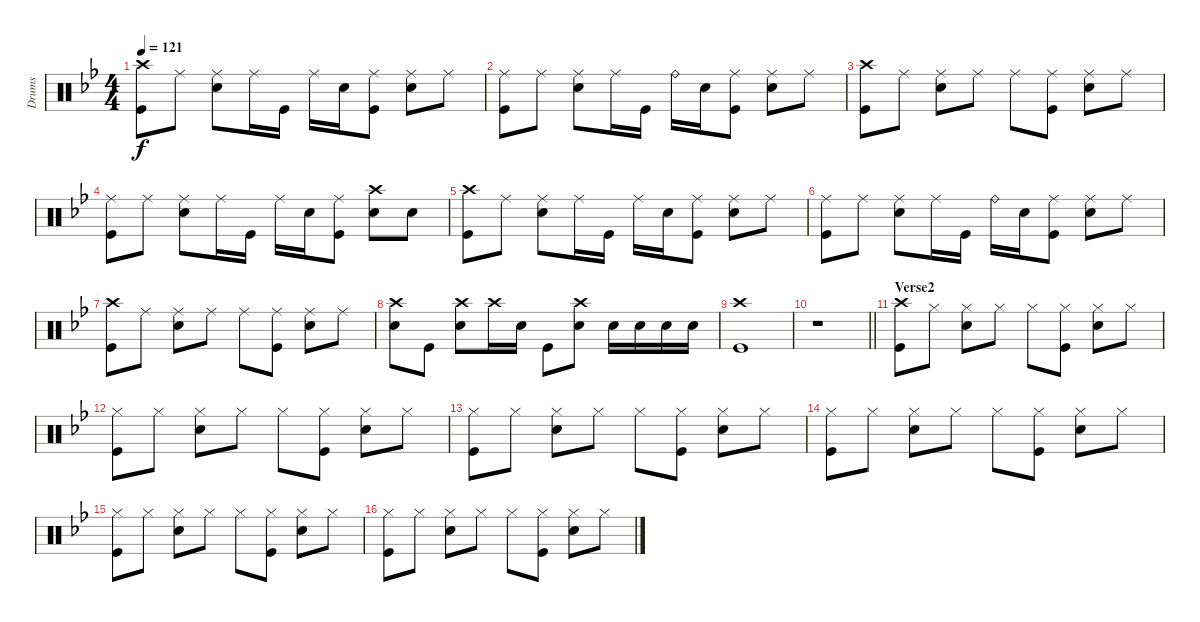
\track ("Drums" "Drums") {instrument percussion}
\staff {score}
\articulation defaults
\ts (4 4)
\tempo 121
\clef neutral
\ks bb
("Crash high (hit)" "Kick (hit)").8{dy f} "Ride (middle)".8 ("Ride (middle)" "Snare (hit) 2").8 "Ride (middle)".16 "Kick (hit)".16 "Ride (middle)".16 "Snare (hit) 2".16 ("Ride (middle)" "Kick (hit)").8 ("Ride (middle)" "Snare (hit) 2").8 "Ride (middle)".8 |
("Ride (middle)" "Kick (hit)").8 "Ride (middle)".8 ("Ride (middle)" "Snare (hit) 2").8 "Ride (middle)".16 "Kick (hit)".16 "Ride (bell)".16 "Snare (hit) 2".16 ("Ride (middle)" "Kick (hit)").8 ("Ride (middle)" "Snare (hit) 2").8 "Ride (middle)".8 |
("Crash high (hit)" "Kick (hit)").8 "Ride (middle)".8 ("Ride (middle)" "Snare (hit) 2").8 "Ride (middle)".8 "Ride (middle)".8 ("Kick (hit)" "Ride (middle)").8 ("Snare (hit) 2" "Ride (middle)").8 "Ride (middle)".8 |
("Ride (middle)" "Kick (hit)").8 "Ride (middle)".8 ("Ride (middle)" "Snare (hit) 2").8 "Ride (middle)".16 "Kick (hit)".16 "Ride (middle)".16 "Snare (hit) 2".16 ("Ride (middle)" "Kick (hit)").8 ("Crash high (hit)" "Snare (hit) 2").8 "Snare (hit) 2".8 |
("Crash high (hit)" "Kick (hit)").8 "Ride (middle)".8 ("Ride (middle)" "Snare (hit) 2").8 "Ride (middle)".16 "Kick (hit)".16 "Ride (middle)".16 "Snare (hit) 2".16 ("Ride (middle)" "Kick (hit)").8 ("Ride (middle)" "Snare (hit) 2").8 "Ride (middle)".8 |
("Ride (middle)" "Kick (hit)").8 "Ride (middle)".8 ("Ride (middle)" "Snare (hit) 2").8 "Ride (middle)".16 "Kick (hit)".16 "Ride (bell)".16 "Snare (hit) 2".16 ("Ride (middle)" "Kick (hit)").8 ("Ride (middle)" "Snare (hit) 2").8 "Ride (middle)".8 |
("Crash high (hit)" "Kick (hit)").8 "Ride (middle)".8 ("Ride (middle)" "Snare (hit) 2").8 "Ride (middle)".8 "Ride (middle)".8 ("Kick (hit)" "Ride (middle)").8 ("Snare (hit) 2" "Ride (middle)").8 "Ride (middle)".8 |
("Crash high (hit)" "Snare (hit) 2").8 "Kick (hit)".8 ("Crash high (hit)" "Snare (hit) 2").8 "Crash high (hit)".16 "Snare (hit) 2".16 "Kick (hit)".8 ("Snare (hit) 2" "Crash high (hit)").8 "Snare (hit) 2".16 "Snare (hit) 2".16 "Snare (hit) 2".16 "Snare (hit) 2".16 |
("Kick (hit)" "Crash high (hit)").1 |
\barLineRight lightlight
r.1 |
\section ("" "Verse2")
("Crash high (hit)" "Kick (hit)").8 "Hi-Hat (closed)".8 ("Hi-Hat (closed)" "Snare (hit) 2").8 "Hi-Hat (closed)".8 "Hi-Hat (closed)".8 ("Hi-Hat (closed)" "Kick (hit)").8 ("Hi-Hat (closed)" "Snare (hit) 2").8 "Hi-Hat (closed)".8 |
("Hi-Hat (closed)" "Kick (hit)").8 "Hi-Hat (closed)".8 ("Hi-Hat (closed)" "Snare (hit) 2").8 "Hi-Hat (closed)".8 "Hi-Hat (closed)".8 ("Hi-Hat (closed)" "Kick (hit)").8 ("Hi-Hat (closed)" "Snare (hit) 2").8 "Hi-Hat (closed)".8 |
("Hi-Hat (closed)" "Kick (hit)").8 "Hi-Hat (closed)".8 ("Hi-Hat (closed)" "Snare (hit) 2").8 "Hi-Hat (closed)".8 "Hi-Hat (closed)".8 ("Hi-Hat (closed)" "Kick (hit)").8 ("Hi-Hat (closed)" "Snare (hit) 2").8 "Hi-Hat (closed)".8 |
("Hi-Hat (closed)" "Kick (hit)").8 "Hi-Hat (closed)".8 ("Hi-Hat (closed)" "Snare (hit) 2").8 "Hi-Hat (closed)".8 "Hi-Hat (closed)".8 ("Hi-Hat (closed)" "Kick (hit)").8 ("Hi-Hat (closed)" "Snare (hit) 2").8 "Hi-Hat (closed)".8 |
("Hi-Hat (closed)" "Kick (hit)").8 "Hi-Hat (closed)".8 ("Hi-Hat (closed)" "Snare (hit) 2").8 "Hi-Hat (closed)".8 "Hi-Hat (closed)".8 ("Hi-Hat (closed)" "Kick (hit)").8 ("Hi-Hat (closed)" "Snare (hit) 2").8 "Hi-Hat (closed)".8 |
("Hi-Hat (closed)" "Kick (hit)").8 "Hi-Hat (closed)".8 ("Hi-Hat (closed)" "Snare (hit) 2").8 "Hi-Hat (closed)".8 "Hi-Hat (closed)".8 ("Hi-Hat (closed)" "Kick (hit)").8 ("Hi-Hat (closed)" "Snare (hit) 2").8 "Hi-Hat (closed)".8
